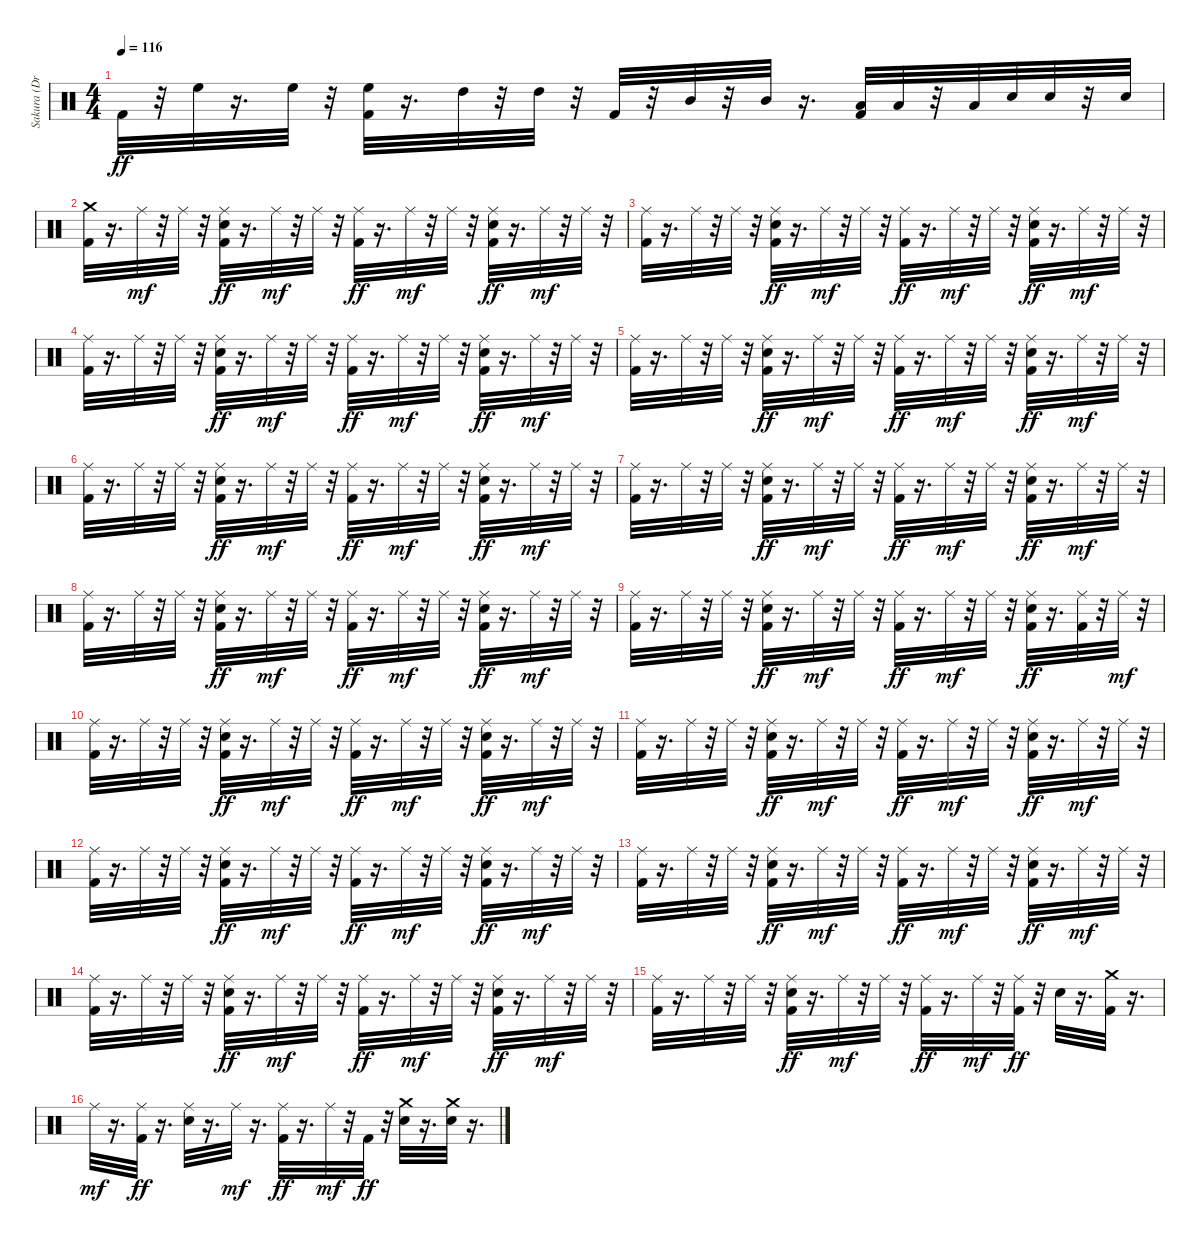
\track ("Sakura (Drums)" "Sakura (Dr") {instrument percussion}
\staff {score}
\articulation defaults
\ts (4 4)
\tempo 116
\clef neutral
\ks c "Kick (hit) 2".32{dy ff}
r.32 "High Floor Tom (hit)".32 r.16{d} "High Floor Tom (hit)".32 r.32 ("Kick (hit) 2" "High Floor Tom (hit)").32 r.16{d} "High Tom (hit)".32 r.32 "High Tom (hit)".32 r.32 "Kick (hit) 2".32 r.32 "Mid Tom (hit)".32 r.32 "Mid Tom (hit)".32 r.16{d} ("Kick (hit) 2" "Low Tom (hit)").32 "Low Tom (hit)".32 r.32 "Low Tom (hit)".32 "Electric Snare (hit)".32 "Electric Snare (hit)".32 r.32 "Electric Snare (hit)".32 |
("Crash medium (hit)" "Kick (hit) 2").32 r.16{d} "Ride (middle)".32{dy mf} r.32 "Ride (middle)".32 r.32 ("Ride (middle)" "Electric Snare (hit)" "Kick (hit) 2").32{dy ff} r.16{d} "Ride (middle)".32{dy mf} r.32 "Ride (middle)".32 r.32 ("Ride (middle)" "Kick (hit) 2").32{dy ff} r.16{d} "Ride (middle)".32{dy mf} r.32 "Ride (middle)".32 r.32 ("Ride (middle)" "Electric Snare (hit)" "Kick (hit) 2").32{dy ff} r.16{d} "Ride (middle)".32{dy mf} r.32 "Ride (middle)".32 r.32 |
("Kick (hit) 2" "Ride (middle)").32 r.16{d} "Ride (middle)".32 r.32 "Ride (middle)".32 r.32 ("Ride (middle)" "Electric Snare (hit)" "Kick (hit) 2").32{dy ff} r.16{d} "Ride (middle)".32{dy mf} r.32 "Ride (middle)".32 r.32 ("Ride (middle)" "Kick (hit) 2").32{dy ff} r.16{d} "Ride (middle)".32{dy mf} r.32 "Ride (middle)".32 r.32 ("Ride (middle)" "Electric Snare (hit)" "Kick (hit) 2").32{dy ff} r.16{d} "Ride (middle)".32{dy mf} r.32 "Ride (middle)".32 r.32 |
("Kick (hit) 2" "Ride (middle)").32 r.16{d} "Ride (middle)".32 r.32 "Ride (middle)".32 r.32 ("Ride (middle)" "Electric Snare (hit)" "Kick (hit) 2").32{dy ff} r.16{d} "Ride (middle)".32{dy mf} r.32 "Ride (middle)".32 r.32 ("Ride (middle)" "Kick (hit) 2").32{dy ff} r.16{d} "Ride (middle)".32{dy mf} r.32 "Ride (middle)".32 r.32 ("Ride (middle)" "Electric Snare (hit)" "Kick (hit) 2").32{dy ff} r.16{d} "Ride (middle)".32{dy mf} r.32 "Ride (middle)".32 r.32 |
("Kick (hit) 2" "Ride (middle)").32 r.16{d} "Ride (middle)".32 r.32 "Ride (middle)".32 r.32 ("Ride (middle)" "Electric Snare (hit)" "Kick (hit) 2").32{dy ff} r.16{d} "Ride (middle)".32{dy mf} r.32 "Ride (middle)".32 r.32 ("Ride (middle)" "Kick (hit) 2").32{dy ff} r.16{d} "Ride (middle)".32{dy mf} r.32 "Ride (middle)".32 r.32 ("Ride (middle)" "Electric Snare (hit)" "Kick (hit) 2").32{dy ff} r.16{d} "Ride (middle)".32{dy mf} r.32 "Ride (middle)".32 r.32 |
("Kick (hit) 2" "Ride (middle)").32 r.16{d} "Ride (middle)".32 r.32 "Ride (middle)".32 r.32 ("Ride (middle)" "Electric Snare (hit)" "Kick (hit) 2").32{dy ff} r.16{d} "Ride (middle)".32{dy mf} r.32 "Ride (middle)".32 r.32 ("Ride (middle)" "Kick (hit) 2").32{dy ff} r.16{d} "Ride (middle)".32{dy mf} r.32 "Ride (middle)".32 r.32 ("Ride (middle)" "Electric Snare (hit)" "Kick (hit) 2").32{dy ff} r.16{d} "Ride (middle)".32{dy mf} r.32 "Ride (middle)".32 r.32 |
("Kick (hit) 2" "Ride (middle)").32 r.16{d} "Ride (middle)".32 r.32 "Ride (middle)".32 r.32 ("Ride (middle)" "Electric Snare (hit)" "Kick (hit) 2").32{dy ff} r.16{d} "Ride (middle)".32{dy mf} r.32 "Ride (middle)".32 r.32 ("Ride (middle)" "Kick (hit) 2").32{dy ff} r.16{d} "Ride (middle)".32{dy mf} r.32 "Ride (middle)".32 r.32 ("Ride (middle)" "Electric Snare (hit)" "Kick (hit) 2").32{dy ff} r.16{d} "Ride (middle)".32{dy mf} r.32 "Ride (middle)".32 r.32 |
("Kick (hit) 2" "Ride (middle)").32 r.16{d} "Ride (middle)".32 r.32 "Ride (middle)".32 r.32 ("Ride (middle)" "Electric Snare (hit)" "Kick (hit) 2").32{dy ff} r.16{d} "Ride (middle)".32{dy mf} r.32 "Ride (middle)".32 r.32 ("Ride (middle)" "Kick (hit) 2").32{dy ff} r.16{d} "Ride (middle)".32{dy mf} r.32 "Ride (middle)".32 r.32 ("Ride (middle)" "Electric Snare (hit)" "Kick (hit) 2").32{dy ff} r.16{d} "Ride (middle)".32{dy mf} r.32 "Ride (middle)".32 r.32 |
("Kick (hit) 2" "Ride (middle)").32 r.16{d} "Ride (middle)".32 r.32 "Ride (middle)".32 r.32 ("Ride (middle)" "Electric Snare (hit)" "Kick (hit) 2").32{dy ff} r.16{d} "Ride (middle)".32{dy mf} r.32 "Ride (middle)".32 r.32 ("Ride (middle)" "Kick (hit) 2").32{dy ff} r.16{d} "Ride (middle)".32{dy mf} r.32 "Ride (middle)".32 r.32 ("Ride (middle)" "Electric Snare (hit)" "Kick (hit) 2").32{dy ff} r.16{d} ("Ride (middle)" "Kick (hit) 2").32 r.32 "Ride (middle)".32{dy mf} r.32 |
("Kick (hit) 2" "Ride (middle)").32 r.16{d} "Ride (middle)".32 r.32 "Ride (middle)".32 r.32 ("Ride (middle)" "Electric Snare (hit)" "Kick (hit) 2").32{dy ff} r.16{d} "Ride (middle)".32{dy mf} r.32 "Ride (middle)".32 r.32 ("Ride (middle)" "Kick (hit) 2").32{dy ff} r.16{d} "Ride (middle)".32{dy mf} r.32 "Ride (middle)".32 r.32 ("Ride (middle)" "Electric Snare (hit)" "Kick (hit) 2").32{dy ff} r.16{d} "Ride (middle)".32{dy mf} r.32 "Ride (middle)".32 r.32 |
("Kick (hit) 2" "Ride (middle)").32 r.16{d} "Ride (middle)".32 r.32 "Ride (middle)".32 r.32 ("Ride (middle)" "Electric Snare (hit)" "Kick (hit) 2").32{dy ff} r.16{d} "Ride (middle)".32{dy mf} r.32 "Ride (middle)".32 r.32 ("Ride (middle)" "Kick (hit) 2").32{dy ff} r.16{d} "Ride (middle)".32{dy mf} r.32 "Ride (middle)".32 r.32 ("Ride (middle)" "Electric Snare (hit)" "Kick (hit) 2").32{dy ff} r.16{d} "Ride (middle)".32{dy mf} r.32 "Ride (middle)".32 r.32 |
("Kick (hit) 2" "Ride (middle)").32 r.16{d} "Ride (middle)".32 r.32 "Ride (middle)".32 r.32 ("Ride (middle)" "Electric Snare (hit)" "Kick (hit) 2").32{dy ff} r.16{d} "Ride (middle)".32{dy mf} r.32 "Ride (middle)".32 r.32 ("Ride (middle)" "Kick (hit) 2").32{dy ff} r.16{d} "Ride (middle)".32{dy mf} r.32 "Ride (middle)".32 r.32 ("Ride (middle)" "Electric Snare (hit)" "Kick (hit) 2").32{dy ff} r.16{d} "Ride (middle)".32{dy mf} r.32 "Ride (middle)".32 r.32 |
("Kick (hit) 2" "Ride (middle)").32 r.16{d} "Ride (middle)".32 r.32 "Ride (middle)".32 r.32 ("Ride (middle)" "Electric Snare (hit)" "Kick (hit) 2").32{dy ff} r.16{d} "Ride (middle)".32{dy mf} r.32 "Ride (middle)".32 r.32 ("Ride (middle)" "Kick (hit) 2").32{dy ff} r.16{d} "Ride (middle)".32{dy mf} r.32 "Ride (middle)".32 r.32 ("Ride (middle)" "Electric Snare (hit)" "Kick (hit) 2").32{dy ff} r.16{d} "Ride (middle)".32{dy mf} r.32 "Ride (middle)".32 r.32 |
("Kick (hit) 2" "Ride (middle)").32 r.16{d} "Ride (middle)".32 r.32 "Ride (middle)".32 r.32 ("Ride (middle)" "Electric Snare (hit)" "Kick (hit) 2").32{dy ff} r.16{d} "Ride (middle)".32{dy mf} r.32 "Ride (middle)".32 r.32 ("Ride (middle)" "Kick (hit) 2").32{dy ff} r.16{d} "Ride (middle)".32{dy mf} r.32 "Ride (middle)".32 r.32 ("Ride (middle)" "Electric Snare (hit)" "Kick (hit) 2").32{dy ff} r.16{d} "Ride (middle)".32{dy mf} r.32 "Ride (middle)".32 r.32 |
("Kick (hit) 2" "Ride (middle)").32 r.16{d} "Ride (middle)".32 r.32 "Ride (middle)".32 r.32 ("Ride (middle)" "Electric Snare (hit)" "Kick (hit) 2").32{dy ff} r.16{d} "Ride (middle)".32{dy mf} r.32 "Ride (middle)".32 r.32 ("Ride (middle)" "Kick (hit) 2").32{dy ff} r.16{d} "Ride (middle)".32{dy mf} r.32 ("Ride (middle)" "Kick (hit) 2").32{dy ff} r.32 "Electric Snare (hit)".32 r.16{d} ("Crash medium (hit)" "Kick (hit) 2").32 r.16{d} |
"Ride (middle)".32{dy mf} r.16{d} ("Ride (middle)" "Kick (hit) 2").32{dy ff} r.16{d} ("Ride (middle)" "Electric Snare (hit)").32 r.16{d} "Ride (middle)".32{dy mf} r.16{d} ("Ride (middle)" "Kick (hit) 2").32{dy ff} r.16{d} "Ride (middle)".32{dy mf} r.32 "Kick (hit) 2".32{dy ff} r.32 ("Crash medium (hit)" "Electric Snare (hit)").32 r.16{d} ("Crash medium (hit)" "Electric Snare (hit)").32 r.16{d}
